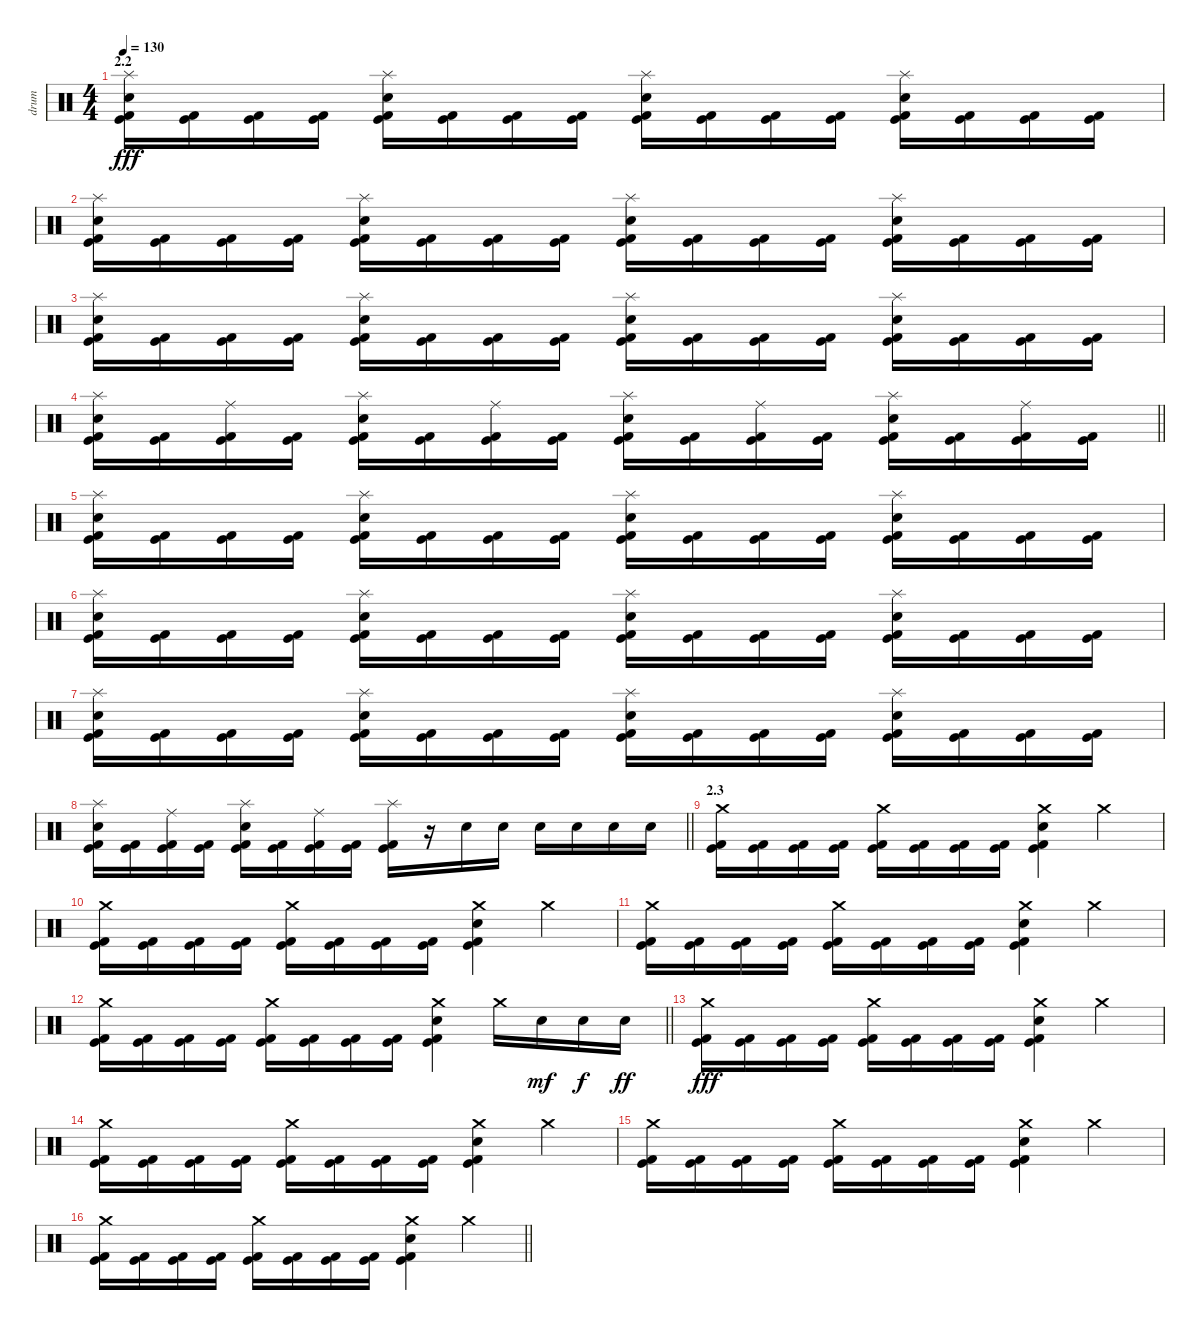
\track ("drum" "drum") {instrument percussion}
\staff {score}
\articulation defaults
\ts (4 4)
\section ("" "2.2")
\tempo 130
\clef neutral
\ks c
("Splash (hit)" "Snare (hit) 2" "Kick (hit)" "Kick (hit) 2").16{dy fff} ("Kick (hit)" "Kick (hit) 2").16 ("Kick (hit)" "Kick (hit) 2").16 ("Kick (hit)" "Kick (hit) 2").16 ("Splash (hit)" "Snare (hit) 2" "Kick (hit)" "Kick (hit) 2").16 ("Kick (hit)" "Kick (hit) 2").16 ("Kick (hit)" "Kick (hit) 2").16 ("Kick (hit)" "Kick (hit) 2").16 ("Splash (hit)" "Snare (hit) 2" "Kick (hit)" "Kick (hit) 2").16 ("Kick (hit)" "Kick (hit) 2").16 ("Kick (hit)" "Kick (hit) 2").16 ("Kick (hit)" "Kick (hit) 2").16 ("Splash (hit)" "Snare (hit) 2" "Kick (hit)" "Kick (hit) 2").16 ("Kick (hit)" "Kick (hit) 2").16 ("Kick (hit)" "Kick (hit) 2").16 ("Kick (hit)" "Kick (hit) 2").16 |
("Splash (hit)" "Snare (hit) 2" "Kick (hit)" "Kick (hit) 2").16 ("Kick (hit)" "Kick (hit) 2").16 ("Kick (hit)" "Kick (hit) 2").16 ("Kick (hit)" "Kick (hit) 2").16 ("Splash (hit)" "Snare (hit) 2" "Kick (hit)" "Kick (hit) 2").16 ("Kick (hit)" "Kick (hit) 2").16 ("Kick (hit)" "Kick (hit) 2").16 ("Kick (hit)" "Kick (hit) 2").16 ("Splash (hit)" "Snare (hit) 2" "Kick (hit)" "Kick (hit) 2").16 ("Kick (hit)" "Kick (hit) 2").16 ("Kick (hit)" "Kick (hit) 2").16 ("Kick (hit)" "Kick (hit) 2").16 ("Splash (hit)" "Snare (hit) 2" "Kick (hit)" "Kick (hit) 2").16 ("Kick (hit)" "Kick (hit) 2").16 ("Kick (hit)" "Kick (hit) 2").16 ("Kick (hit)" "Kick (hit) 2").16 |
("Splash (hit)" "Snare (hit) 2" "Kick (hit)" "Kick (hit) 2").16 ("Kick (hit)" "Kick (hit) 2").16 ("Kick (hit)" "Kick (hit) 2").16 ("Kick (hit)" "Kick (hit) 2").16 ("Splash (hit)" "Snare (hit) 2" "Kick (hit)" "Kick (hit) 2").16 ("Kick (hit)" "Kick (hit) 2").16 ("Kick (hit)" "Kick (hit) 2").16 ("Kick (hit)" "Kick (hit) 2").16 ("Splash (hit)" "Snare (hit) 2" "Kick (hit)" "Kick (hit) 2").16 ("Kick (hit)" "Kick (hit) 2").16 ("Kick (hit)" "Kick (hit) 2").16 ("Kick (hit)" "Kick (hit) 2").16 ("Splash (hit)" "Snare (hit) 2" "Kick (hit)" "Kick (hit) 2").16 ("Kick (hit)" "Kick (hit) 2").16 ("Kick (hit)" "Kick (hit) 2").16 ("Kick (hit)" "Kick (hit) 2").16 |
\barLineRight lightlight
("Splash (hit)" "Snare (hit) 2" "Kick (hit)" "Kick (hit) 2").16 ("Kick (hit)" "Kick (hit) 2").16 ("Ride (middle)" "Kick (hit)" "Kick (hit) 2").16 ("Kick (hit)" "Kick (hit) 2").16 ("Splash (hit)" "Snare (hit) 2" "Kick (hit)" "Kick (hit) 2").16 ("Kick (hit)" "Kick (hit) 2").16 ("Ride (middle)" "Kick (hit)" "Kick (hit) 2").16 ("Kick (hit)" "Kick (hit) 2").16 ("Splash (hit)" "Snare (hit) 2" "Kick (hit)" "Kick (hit) 2").16 ("Kick (hit)" "Kick (hit) 2").16 ("Ride (middle)" "Kick (hit)" "Kick (hit) 2").16 ("Kick (hit)" "Kick (hit) 2").16 ("Splash (hit)" "Snare (hit) 2" "Kick (hit)" "Kick (hit) 2").16 ("Kick (hit)" "Kick (hit) 2").16 ("Ride (middle)" "Kick (hit)" "Kick (hit) 2").16 ("Kick (hit)" "Kick (hit) 2").16 |
("Splash (hit)" "Snare (hit) 2" "Kick (hit)" "Kick (hit) 2").16 ("Kick (hit)" "Kick (hit) 2").16 ("Kick (hit)" "Kick (hit) 2").16 ("Kick (hit)" "Kick (hit) 2").16 ("Splash (hit)" "Snare (hit) 2" "Kick (hit)" "Kick (hit) 2").16 ("Kick (hit)" "Kick (hit) 2").16 ("Kick (hit)" "Kick (hit) 2").16 ("Kick (hit)" "Kick (hit) 2").16 ("Splash (hit)" "Snare (hit) 2" "Kick (hit)" "Kick (hit) 2").16 ("Kick (hit)" "Kick (hit) 2").16 ("Kick (hit)" "Kick (hit) 2").16 ("Kick (hit)" "Kick (hit) 2").16 ("Splash (hit)" "Snare (hit) 2" "Kick (hit)" "Kick (hit) 2").16 ("Kick (hit)" "Kick (hit) 2").16 ("Kick (hit)" "Kick (hit) 2").16 ("Kick (hit)" "Kick (hit) 2").16 |
("Splash (hit)" "Snare (hit) 2" "Kick (hit)" "Kick (hit) 2").16 ("Kick (hit)" "Kick (hit) 2").16 ("Kick (hit)" "Kick (hit) 2").16 ("Kick (hit)" "Kick (hit) 2").16 ("Splash (hit)" "Snare (hit) 2" "Kick (hit)" "Kick (hit) 2").16 ("Kick (hit)" "Kick (hit) 2").16 ("Kick (hit)" "Kick (hit) 2").16 ("Kick (hit)" "Kick (hit) 2").16 ("Splash (hit)" "Snare (hit) 2" "Kick (hit)" "Kick (hit) 2").16 ("Kick (hit)" "Kick (hit) 2").16 ("Kick (hit)" "Kick (hit) 2").16 ("Kick (hit)" "Kick (hit) 2").16 ("Splash (hit)" "Snare (hit) 2" "Kick (hit)" "Kick (hit) 2").16 ("Kick (hit)" "Kick (hit) 2").16 ("Kick (hit)" "Kick (hit) 2").16 ("Kick (hit)" "Kick (hit) 2").16 |
("Splash (hit)" "Snare (hit) 2" "Kick (hit)" "Kick (hit) 2").16 ("Kick (hit)" "Kick (hit) 2").16 ("Kick (hit)" "Kick (hit) 2").16 ("Kick (hit)" "Kick (hit) 2").16 ("Splash (hit)" "Snare (hit) 2" "Kick (hit)" "Kick (hit) 2").16 ("Kick (hit)" "Kick (hit) 2").16 ("Kick (hit)" "Kick (hit) 2").16 ("Kick (hit)" "Kick (hit) 2").16 ("Splash (hit)" "Snare (hit) 2" "Kick (hit)" "Kick (hit) 2").16 ("Kick (hit)" "Kick (hit) 2").16 ("Kick (hit)" "Kick (hit) 2").16 ("Kick (hit)" "Kick (hit) 2").16 ("Splash (hit)" "Snare (hit) 2" "Kick (hit)" "Kick (hit) 2").16 ("Kick (hit)" "Kick (hit) 2").16 ("Kick (hit)" "Kick (hit) 2").16 ("Kick (hit)" "Kick (hit) 2").16 |
\barLineRight lightlight
("Splash (hit)" "Snare (hit) 2" "Kick (hit)" "Kick (hit) 2").16 ("Kick (hit)" "Kick (hit) 2").16 ("Ride (middle)" "Kick (hit)" "Kick (hit) 2").16 ("Kick (hit)" "Kick (hit) 2").16 ("Splash (hit)" "Snare (hit) 2" "Kick (hit)" "Kick (hit) 2").16 ("Kick (hit)" "Kick (hit) 2").16 ("Ride (middle)" "Kick (hit)" "Kick (hit) 2").16 ("Kick (hit)" "Kick (hit) 2").16 ("Splash (hit)" "Kick (hit)" "Kick (hit) 2").16 r.16 "Snare (hit) 2".16 "Snare (hit) 2".16 "Snare (hit) 2".16 "Snare (hit) 2".16 "Snare (hit) 2".16 "Snare (hit) 2".16 |
\section ("" "2.3")
("Crash medium (hit)" "Kick (hit)" "Kick (hit) 2").16 ("Kick (hit)" "Kick (hit) 2").16 ("Kick (hit)" "Kick (hit) 2").16 ("Kick (hit)" "Kick (hit) 2").16 ("Crash medium (hit)" "Kick (hit)" "Kick (hit) 2").16 ("Kick (hit)" "Kick (hit) 2").16 ("Kick (hit)" "Kick (hit) 2").16 ("Kick (hit)" "Kick (hit) 2").16 ("Crash medium (hit)" "Snare (hit) 2" "Kick (hit)" "Kick (hit) 2").4 "Crash medium (hit)".4 |
("Crash medium (hit)" "Kick (hit)" "Kick (hit) 2").16 ("Kick (hit)" "Kick (hit) 2").16 ("Kick (hit)" "Kick (hit) 2").16 ("Kick (hit)" "Kick (hit) 2").16 ("Crash medium (hit)" "Kick (hit)" "Kick (hit) 2").16 ("Kick (hit)" "Kick (hit) 2").16 ("Kick (hit)" "Kick (hit) 2").16 ("Kick (hit)" "Kick (hit) 2").16 ("Crash medium (hit)" "Snare (hit) 2" "Kick (hit)" "Kick (hit) 2").4 "Crash medium (hit)".4 |
("Crash medium (hit)" "Kick (hit)" "Kick (hit) 2").16 ("Kick (hit)" "Kick (hit) 2").16 ("Kick (hit)" "Kick (hit) 2").16 ("Kick (hit)" "Kick (hit) 2").16 ("Crash medium (hit)" "Kick (hit)" "Kick (hit) 2").16 ("Kick (hit)" "Kick (hit) 2").16 ("Kick (hit)" "Kick (hit) 2").16 ("Kick (hit)" "Kick (hit) 2").16 ("Crash medium (hit)" "Snare (hit) 2" "Kick (hit)" "Kick (hit) 2").4 "Crash medium (hit)".4 |
\barLineRight lightlight
("Crash medium (hit)" "Kick (hit)" "Kick (hit) 2").16 ("Kick (hit)" "Kick (hit) 2").16 ("Kick (hit)" "Kick (hit) 2").16 ("Kick (hit)" "Kick (hit) 2").16 ("Crash medium (hit)" "Kick (hit)" "Kick (hit) 2").16 ("Kick (hit)" "Kick (hit) 2").16 ("Kick (hit)" "Kick (hit) 2").16 ("Kick (hit)" "Kick (hit) 2").16 ("Crash medium (hit)" "Snare (hit) 2" "Kick (hit)" "Kick (hit) 2").4 "Crash medium (hit)".16 "Snare (hit) 2".16{dy mf} "Snare (hit) 2".16{dy f} "Snare (hit) 2".16{dy ff} |
("Crash medium (hit)" "Kick (hit)" "Kick (hit) 2").16{dy fff} ("Kick (hit)" "Kick (hit) 2").16 ("Kick (hit)" "Kick (hit) 2").16 ("Kick (hit)" "Kick (hit) 2").16 ("Crash medium (hit)" "Kick (hit)" "Kick (hit) 2").16 ("Kick (hit)" "Kick (hit) 2").16 ("Kick (hit)" "Kick (hit) 2").16 ("Kick (hit)" "Kick (hit) 2").16 ("Crash medium (hit)" "Snare (hit) 2" "Kick (hit)" "Kick (hit) 2").4 "Crash medium (hit)".4 |
("Crash medium (hit)" "Kick (hit)" "Kick (hit) 2").16 ("Kick (hit)" "Kick (hit) 2").16 ("Kick (hit)" "Kick (hit) 2").16 ("Kick (hit)" "Kick (hit) 2").16 ("Crash medium (hit)" "Kick (hit)" "Kick (hit) 2").16 ("Kick (hit)" "Kick (hit) 2").16 ("Kick (hit)" "Kick (hit) 2").16 ("Kick (hit)" "Kick (hit) 2").16 ("Crash medium (hit)" "Snare (hit) 2" "Kick (hit)" "Kick (hit) 2").4 "Crash medium (hit)".4 |
("Crash medium (hit)" "Kick (hit)" "Kick (hit) 2").16 ("Kick (hit)" "Kick (hit) 2").16 ("Kick (hit)" "Kick (hit) 2").16 ("Kick (hit)" "Kick (hit) 2").16 ("Crash medium (hit)" "Kick (hit)" "Kick (hit) 2").16 ("Kick (hit)" "Kick (hit) 2").16 ("Kick (hit)" "Kick (hit) 2").16 ("Kick (hit)" "Kick (hit) 2").16 ("Crash medium (hit)" "Snare (hit) 2" "Kick (hit)" "Kick (hit) 2").4 "Crash medium (hit)".4 |
\barLineRight lightlight
("Crash medium (hit)" "Kick (hit)" "Kick (hit) 2").16 ("Kick (hit)" "Kick (hit) 2").16 ("Kick (hit)" "Kick (hit) 2").16 ("Kick (hit)" "Kick (hit) 2").16 ("Crash medium (hit)" "Kick (hit)" "Kick (hit) 2").16 ("Kick (hit)" "Kick (hit) 2").16 ("Kick (hit)" "Kick (hit) 2").16 ("Kick (hit)" "Kick (hit) 2").16 ("Crash medium (hit)" "Snare (hit) 2" "Kick (hit)" "Kick (hit) 2").4 "Crash medium (hit)".4
